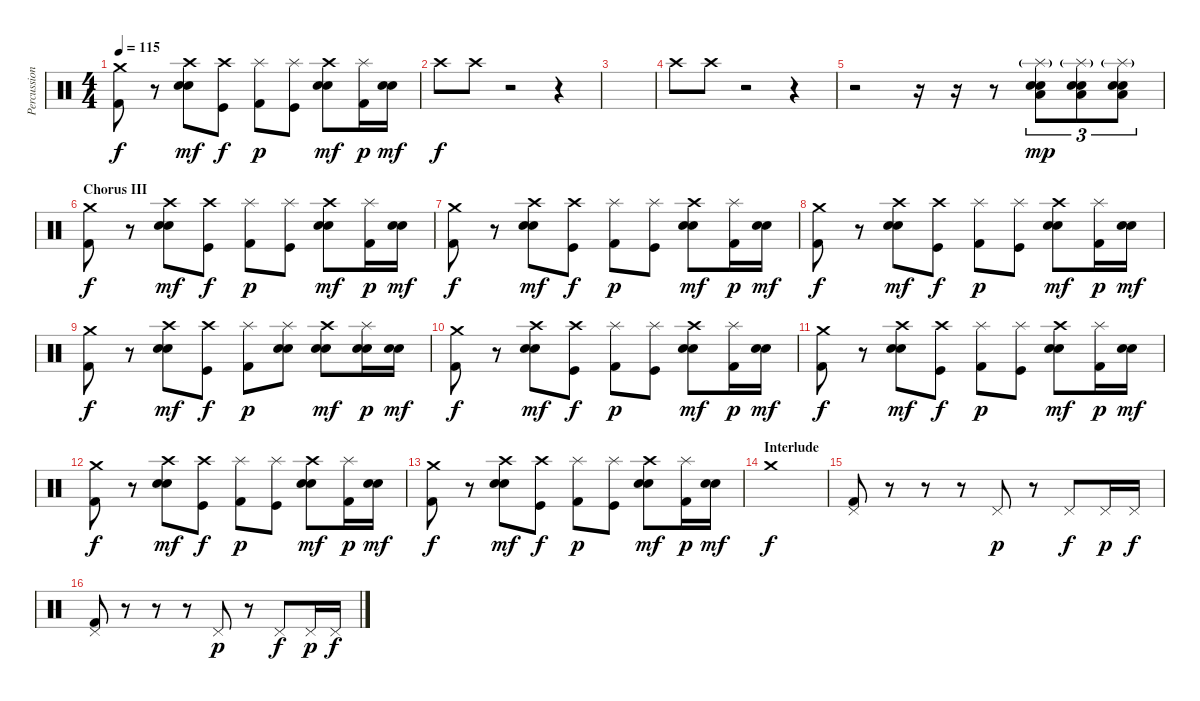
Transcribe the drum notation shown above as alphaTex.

\track ("Percussion - Drums" "Percussion") {instrument percussion}
\staff {score}
\articulation defaults
\ts (4 4)
\tempo 115
\clef neutral
\ks c
("Crash medium (hit)" "Kick (hit) 2").8{dy f} r.8 ("Crash high (hit)" "Electric Snare (hit)" "Snare (hit) 2").8{dy mf} ("Crash high (hit)" "Kick (hit)").8{dy f} ("Splash (hit)" "Kick (hit) 2").8{dy p} ("Splash (hit)" "Kick (hit)").8 ("Crash high (hit)" "Electric Snare (hit)" "Snare (hit) 2").8{dy mf} ("Splash (hit)" "Kick (hit) 2").16{dy p} ("Electric Snare (hit)" "Snare (hit) 2").16{dy mf} |
"Crash high (hit)".8{dy f} "Crash high (hit)".8 r.2 r.4 |
|
"Crash high (hit)".8 "Crash high (hit)".8 r.2 r.4 |
r.2 r.16 r.16 r.8 ("Splash (hit)"{g} "Low Tom (hit)" "Electric Snare (hit)" "Snare (hit) 2").8{tu (3 2) dy mp} ("Splash (hit)"{g} "Low Tom (hit)" "Electric Snare (hit)" "Snare (hit) 2").8{tu (3 2)} ("Splash (hit)"{g} "Low Tom (hit)" "Electric Snare (hit)" "Snare (hit) 2").8{tu (3 2)} |
\section ("" "Chorus III")
("Crash medium (hit)" "Kick (hit) 2").8{dy f} r.8 ("Crash high (hit)" "Electric Snare (hit)" "Snare (hit) 2").8{dy mf} ("Crash high (hit)" "Kick (hit)").8{dy f} ("Splash (hit)" "Kick (hit) 2").8{dy p} ("Splash (hit)" "Kick (hit)").8 ("Crash high (hit)" "Electric Snare (hit)" "Snare (hit) 2").8{dy mf} ("Splash (hit)" "Kick (hit) 2").16{dy p} ("Electric Snare (hit)" "Snare (hit) 2").16{dy mf} |
("Crash medium (hit)" "Kick (hit) 2").8{dy f} r.8 ("Crash high (hit)" "Electric Snare (hit)" "Snare (hit) 2").8{dy mf} ("Crash high (hit)" "Kick (hit)").8{dy f} ("Splash (hit)" "Kick (hit) 2").8{dy p} ("Splash (hit)" "Kick (hit)").8 ("Crash high (hit)" "Electric Snare (hit)" "Snare (hit) 2").8{dy mf} ("Splash (hit)" "Kick (hit) 2").16{dy p} ("Electric Snare (hit)" "Snare (hit) 2").16{dy mf} |
("Crash medium (hit)" "Kick (hit) 2").8{dy f} r.8 ("Crash high (hit)" "Electric Snare (hit)" "Snare (hit) 2").8{dy mf} ("Crash high (hit)" "Kick (hit)").8{dy f} ("Splash (hit)" "Kick (hit) 2").8{dy p} ("Splash (hit)" "Kick (hit)").8 ("Crash high (hit)" "Electric Snare (hit)" "Snare (hit) 2").8{dy mf} ("Splash (hit)" "Kick (hit) 2").16{dy p} ("Electric Snare (hit)" "Snare (hit) 2").16{dy mf} |
("Crash medium (hit)" "Kick (hit) 2").8{dy f} r.8 ("Crash high (hit)" "Electric Snare (hit)" "Snare (hit) 2").8{dy mf} ("Crash high (hit)" "Kick (hit)").8{dy f} ("Splash (hit)" "Kick (hit) 2").8{dy p} ("Splash (hit)" "Electric Snare (hit)" "Snare (hit) 2").8 ("Crash high (hit)" "Electric Snare (hit)" "Snare (hit) 2").8{dy mf} ("Splash (hit)" "Electric Snare (hit)" "Snare (hit) 2").16{dy p} ("Electric Snare (hit)" "Snare (hit) 2").16{dy mf} |
("Crash medium (hit)" "Kick (hit) 2").8{dy f} r.8 ("Crash high (hit)" "Electric Snare (hit)" "Snare (hit) 2").8{dy mf} ("Crash high (hit)" "Kick (hit)").8{dy f} ("Splash (hit)" "Kick (hit) 2").8{dy p} ("Splash (hit)" "Kick (hit)").8 ("Crash high (hit)" "Electric Snare (hit)" "Snare (hit) 2").8{dy mf} ("Splash (hit)" "Kick (hit) 2").16{dy p} ("Electric Snare (hit)" "Snare (hit) 2").16{dy mf} |
("Crash medium (hit)" "Kick (hit) 2").8{dy f} r.8 ("Crash high (hit)" "Electric Snare (hit)" "Snare (hit) 2").8{dy mf} ("Crash high (hit)" "Kick (hit)").8{dy f} ("Splash (hit)" "Kick (hit) 2").8{dy p} ("Splash (hit)" "Kick (hit)").8 ("Crash high (hit)" "Electric Snare (hit)" "Snare (hit) 2").8{dy mf} ("Splash (hit)" "Kick (hit) 2").16{dy p} ("Electric Snare (hit)" "Snare (hit) 2").16{dy mf} |
("Crash medium (hit)" "Kick (hit) 2").8{dy f} r.8 ("Crash high (hit)" "Electric Snare (hit)" "Snare (hit) 2").8{dy mf} ("Crash high (hit)" "Kick (hit)").8{dy f} ("Splash (hit)" "Kick (hit) 2").8{dy p} ("Splash (hit)" "Kick (hit)").8 ("Crash high (hit)" "Electric Snare (hit)" "Snare (hit) 2").8{dy mf} ("Splash (hit)" "Kick (hit) 2").16{dy p} ("Electric Snare (hit)" "Snare (hit) 2").16{dy mf} |
("Crash medium (hit)" "Kick (hit) 2").8{dy f} r.8 ("Crash high (hit)" "Electric Snare (hit)" "Snare (hit) 2").8{dy mf} ("Crash high (hit)" "Kick (hit)").8{dy f} ("Splash (hit)" "Kick (hit) 2").8{dy p} ("Splash (hit)" "Kick (hit)").8 ("Crash high (hit)" "Electric Snare (hit)" "Snare (hit) 2").8{dy mf} ("Splash (hit)" "Kick (hit) 2").16{dy p} ("Electric Snare (hit)" "Snare (hit) 2").16{dy mf} |
\section ("" "Interlude")
"Crash medium (hit)".1{dy f} |
("Pedal Hi-Hat (hit)" "Kick (hit) 2").8 r.8 r.8 r.8 "Pedal Hi-Hat (hit)".8{dy p} r.8 "Pedal Hi-Hat (hit)".8{dy f} "Pedal Hi-Hat (hit)".16{dy p} "Pedal Hi-Hat (hit)".16{dy f} |
("Pedal Hi-Hat (hit)" "Kick (hit) 2").8 r.8 r.8 r.8 "Pedal Hi-Hat (hit)".8{dy p} r.8 "Pedal Hi-Hat (hit)".8{dy f} "Pedal Hi-Hat (hit)".16{dy p} "Pedal Hi-Hat (hit)".16{dy f}
